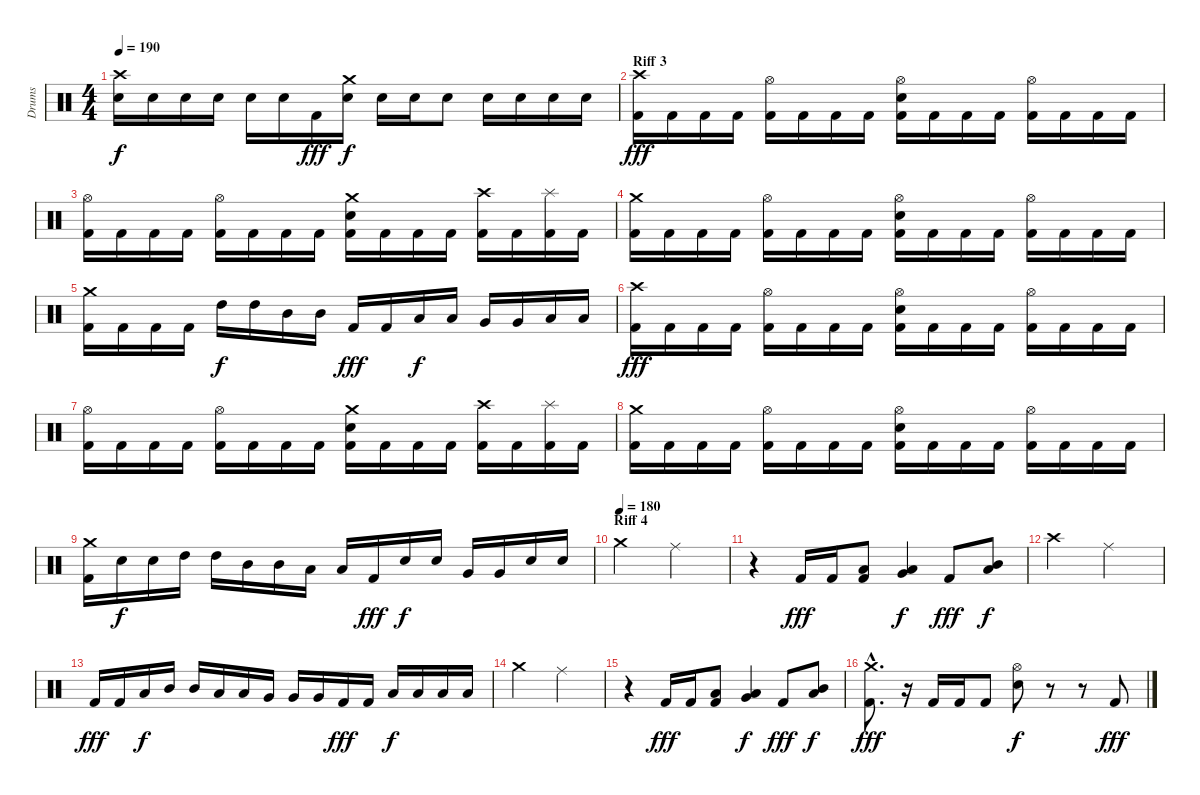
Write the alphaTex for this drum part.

\track ("Drums" "Drums") {instrument percussion}
\staff {score}
\articulation defaults
\ts (4 4)
\tempo 190
\clef neutral
\ks c
("Crash high (hit)" "Electric Snare (hit)").16{dy f} "Electric Snare (hit)".16 "Electric Snare (hit)".16 "Electric Snare (hit)".16 "Electric Snare (hit)".16 "Electric Snare (hit)".16 "Kick (hit) 2".16{dy fff} ("Crash medium (hit)" "Electric Snare (hit)").16{dy f} "Electric Snare (hit)".16 "Electric Snare (hit)".16 "Electric Snare (hit)".8 "Electric Snare (hit)".16 "Electric Snare (hit)".16 "Electric Snare (hit)".16 "Electric Snare (hit)".16 |
\section ("" "Riff 3")
("Crash high (hit)" "Kick (hit) 2").16{dy fff} "Kick (hit) 2".16 "Kick (hit) 2".16 "Kick (hit) 2".16 ("Hi-Hat (open)" "Kick (hit) 2").16 "Kick (hit) 2".16 "Kick (hit) 2".16 "Kick (hit) 2".16 ("Hi-Hat (open)" "Electric Snare (hit)" "Kick (hit) 2").16 "Kick (hit) 2".16 "Kick (hit) 2".16 "Kick (hit) 2".16 ("Hi-Hat (open)" "Kick (hit) 2").16 "Kick (hit) 2".16 "Kick (hit) 2".16 "Kick (hit) 2".16 |
("Hi-Hat (open)" "Kick (hit) 2").16 "Kick (hit) 2".16 "Kick (hit) 2".16 "Kick (hit) 2".16 ("Hi-Hat (open)" "Kick (hit) 2").16 "Kick (hit) 2".16 "Kick (hit) 2".16 "Kick (hit) 2".16 ("Crash medium (hit)" "Electric Snare (hit)" "Kick (hit) 2").16 "Kick (hit) 2".16 "Kick (hit) 2".16 "Kick (hit) 2".16 ("Crash high (hit)" "Kick (hit) 2").16 "Kick (hit) 2".16 ("Splash (hit)" "Kick (hit) 2").16 "Kick (hit) 2".16 |
("Crash medium (hit)" "Kick (hit) 2").16 "Kick (hit) 2".16 "Kick (hit) 2".16 "Kick (hit) 2".16 ("Hi-Hat (open)" "Kick (hit) 2").16 "Kick (hit) 2".16 "Kick (hit) 2".16 "Kick (hit) 2".16 ("Hi-Hat (open)" "Electric Snare (hit)" "Kick (hit) 2").16 "Kick (hit) 2".16 "Kick (hit) 2".16 "Kick (hit) 2".16 ("Hi-Hat (open)" "Kick (hit) 2").16 "Kick (hit) 2".16 "Kick (hit) 2".16 "Kick (hit) 2".16 |
("Crash medium (hit)" "Kick (hit) 2").16 "Kick (hit) 2".16 "Kick (hit) 2".16 "Kick (hit) 2".16 "High Tom (hit)".16{dy f} "High Tom (hit)".16 "Mid Tom (hit)".16 "Mid Tom (hit)".16 "Kick (hit) 2".16{dy fff} "Kick (hit) 2".16 "Low Tom (hit)".16{dy f} "Low Tom (hit)".16 "Very Low Tom (hit)".16 "Very Low Tom (hit)".16 "Low Floor Tom (hit)".16 "Low Floor Tom (hit)".16 |
("Crash high (hit)" "Kick (hit) 2").16{dy fff} "Kick (hit) 2".16 "Kick (hit) 2".16 "Kick (hit) 2".16 ("Hi-Hat (open)" "Kick (hit) 2").16 "Kick (hit) 2".16 "Kick (hit) 2".16 "Kick (hit) 2".16 ("Hi-Hat (open)" "Electric Snare (hit)" "Kick (hit) 2").16 "Kick (hit) 2".16 "Kick (hit) 2".16 "Kick (hit) 2".16 ("Hi-Hat (open)" "Kick (hit) 2").16 "Kick (hit) 2".16 "Kick (hit) 2".16 "Kick (hit) 2".16 |
("Hi-Hat (open)" "Kick (hit) 2").16 "Kick (hit) 2".16 "Kick (hit) 2".16 "Kick (hit) 2".16 ("Hi-Hat (open)" "Kick (hit) 2").16 "Kick (hit) 2".16 "Kick (hit) 2".16 "Kick (hit) 2".16 ("Crash medium (hit)" "Electric Snare (hit)" "Kick (hit) 2").16 "Kick (hit) 2".16 "Kick (hit) 2".16 "Kick (hit) 2".16 ("Crash high (hit)" "Kick (hit) 2").16 "Kick (hit) 2".16 ("Splash (hit)" "Kick (hit) 2").16 "Kick (hit) 2".16 |
("Crash medium (hit)" "Kick (hit) 2").16 "Kick (hit) 2".16 "Kick (hit) 2".16 "Kick (hit) 2".16 ("Hi-Hat (open)" "Kick (hit) 2").16 "Kick (hit) 2".16 "Kick (hit) 2".16 "Kick (hit) 2".16 ("Hi-Hat (open)" "Electric Snare (hit)" "Kick (hit) 2").16 "Kick (hit) 2".16 "Kick (hit) 2".16 "Kick (hit) 2".16 ("Hi-Hat (open)" "Kick (hit) 2").16 "Kick (hit) 2".16 "Kick (hit) 2".16 "Kick (hit) 2".16 |
("Crash medium (hit)" "Kick (hit) 2").16 "Electric Snare (hit)".16{dy f} "Electric Snare (hit)".16 "High Tom (hit)".16 "High Tom (hit)".16 "Mid Tom (hit)".16 "Mid Tom (hit)".16 "Low Tom (hit)".16 "Low Tom (hit)".16 "Kick (hit) 2".16{dy fff} "Electric Snare (hit)".16{dy f} "Electric Snare (hit)".16 "Very Low Tom (hit)".16 "Very Low Tom (hit)".16 "Electric Snare (hit)".16 "Electric Snare (hit)".16 |
\section ("" "Riff 4")
\tempo (180)
"Crash medium (hit)".2 "Ride (middle)".2 |
r.4 "Kick (hit) 2".16{dy fff} "Kick (hit) 2".16 ("Low Tom (hit)" "Kick (hit) 2").8 ("Low Tom (hit)" "Very Low Tom (hit)").4{dy f} "Kick (hit) 2".8{dy fff} ("Mid Tom (hit)" "Low Floor Tom (hit)").8{dy f} |
"Crash high (hit)".2 "Ride (middle)".2 |
"Kick (hit) 2".16{dy fff} "Kick (hit) 2".16 "Low Tom (hit)".16{dy f} "Mid Tom (hit)".16 "Mid Tom (hit)".16 "Low Tom (hit)".16 "Low Tom (hit)".16 "Very Low Tom (hit)".16 "Very Low Tom (hit)".16 "Very Low Tom (hit)".16 "Kick (hit) 2".16{dy fff} "Kick (hit) 2".16 "Low Floor Tom (hit)".16{dy f} "Low Floor Tom (hit)".16 "Low Floor Tom (hit)".16 "Low Floor Tom (hit)".16 |
"Crash medium (hit)".2 "Ride (middle)".2 |
r.4 "Kick (hit) 2".16{dy fff} "Kick (hit) 2".16 ("Low Tom (hit)" "Kick (hit) 2").8 ("Low Tom (hit)" "Very Low Tom (hit)").4{dy f} "Kick (hit) 2".8{dy fff} ("Mid Tom (hit)" "Low Floor Tom (hit)").8{dy f} |
("Crash medium (hit)"{hac} "Kick (hit) 2"{hac}).8{d dy fff} r.16 "Kick (hit) 2".16 "Kick (hit) 2".16 "Kick (hit) 2".8 ("Hi-Hat (open)" "Electric Snare (hit)").8{dy f} r.8 r.8 "Kick (hit) 2".8{dy fff}
